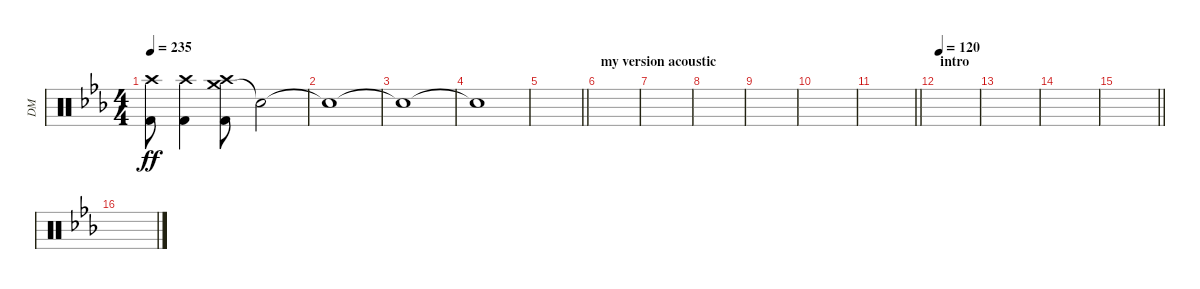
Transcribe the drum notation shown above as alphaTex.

\track ("DM" "DM") {instrument percussion}
\staff {score}
\articulation defaults
\ts (4 4)
\section ("" "")
\tempo 235
\clef neutral
\ks cminor
("Crash high (hit)" "Kick (hit) 2").8{dy ff} ("Crash high (hit)" "Kick (hit) 2").4 ("Crash medium (hit)" "Crash high (hit)" "Kick (hit) 2").8{volume 0} "Snare (hit)"{t}.2 |
"Snare (hit)"{t}.1 |
"Snare (hit)"{t}.1 |
"Snare (hit)"{t}.1 |
\barLineRight lightlight
|
\section ("" "my version acoustic")
|
|
|
|
|
\barLineRight lightlight
|
\section ("" "intro")
\tempo 120
|
|
|
\barLineRight lightlight
|
\section ("" "")
